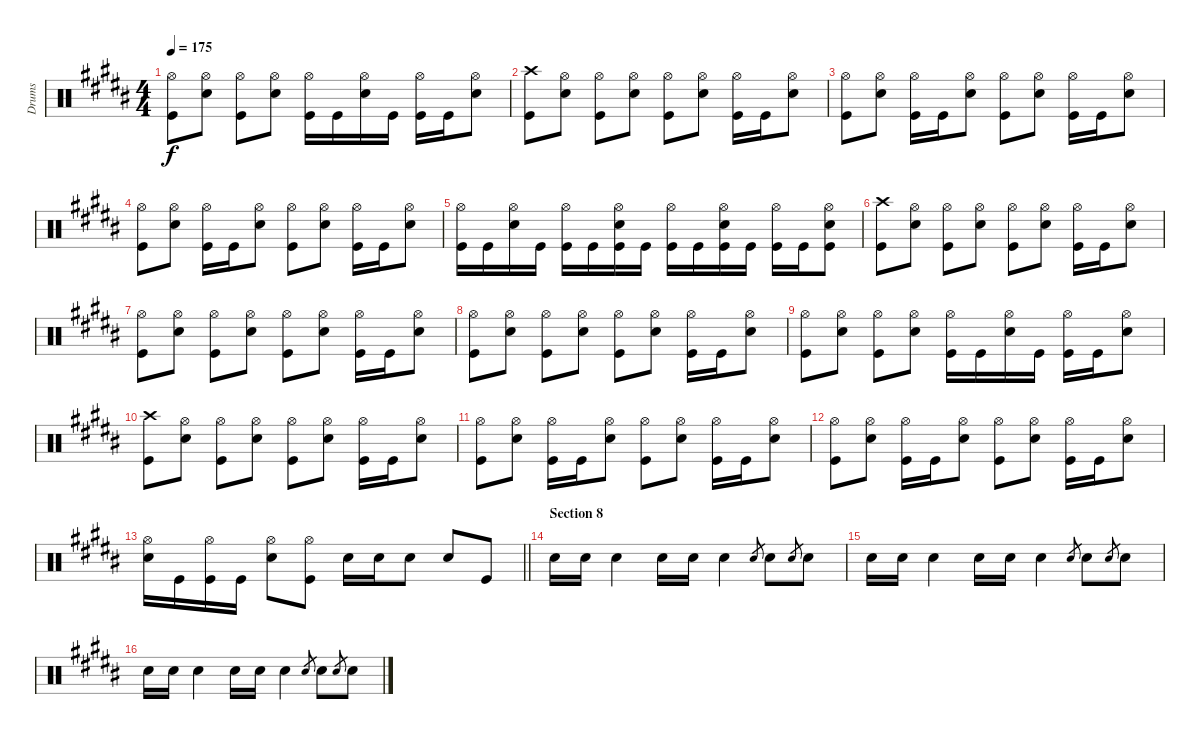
\track ("Drums" "Drums") {instrument percussion}
\staff {score}
\articulation defaults
\ts (4 4)
\tempo 175
\clef neutral
\ks b
("Hi-Hat (open)" "Kick (hit)").8{dy f} ("Hi-Hat (open)" "Snare (hit) 2").8 ("Hi-Hat (open)" "Kick (hit)").8 ("Hi-Hat (open)" "Snare (hit) 2").8 ("Hi-Hat (open)" "Kick (hit)").16 "Kick (hit)".16 ("Hi-Hat (open)" "Snare (hit) 2").16 "Kick (hit)".16 ("Hi-Hat (open)" "Kick (hit)").16 "Kick (hit)".16 ("Hi-Hat (open)" "Snare (hit) 2").8 |
("Crash high (hit)" "Kick (hit)").8 ("Hi-Hat (open)" "Snare (hit) 2").8 ("Hi-Hat (open)" "Kick (hit)").8 ("Hi-Hat (open)" "Snare (hit) 2").8 ("Hi-Hat (open)" "Kick (hit)").8 ("Hi-Hat (open)" "Snare (hit) 2").8 ("Hi-Hat (open)" "Kick (hit)").16 "Kick (hit)".16 ("Hi-Hat (open)" "Snare (hit) 2").8 |
("Hi-Hat (open)" "Kick (hit)").8 ("Hi-Hat (open)" "Snare (hit) 2").8 ("Hi-Hat (open)" "Kick (hit)").16 "Kick (hit)".16 ("Hi-Hat (open)" "Snare (hit) 2").8 ("Hi-Hat (open)" "Kick (hit)").8 ("Hi-Hat (open)" "Snare (hit) 2").8 ("Hi-Hat (open)" "Kick (hit)").16 "Kick (hit)".16 ("Hi-Hat (open)" "Snare (hit) 2").8 |
("Hi-Hat (open)" "Kick (hit)").8 ("Hi-Hat (open)" "Snare (hit) 2").8 ("Hi-Hat (open)" "Kick (hit)").16 "Kick (hit)".16 ("Hi-Hat (open)" "Snare (hit) 2").8 ("Hi-Hat (open)" "Kick (hit)").8 ("Hi-Hat (open)" "Snare (hit) 2").8 ("Hi-Hat (open)" "Kick (hit)").16 "Kick (hit)".16 ("Hi-Hat (open)" "Snare (hit) 2").8 |
("Hi-Hat (open)" "Kick (hit)").16 "Kick (hit)".16 ("Hi-Hat (open)" "Snare (hit) 2").16 "Kick (hit)".16 ("Hi-Hat (open)" "Kick (hit)").16 "Kick (hit)".16 ("Hi-Hat (open)" "Kick (hit)" "Snare (hit) 2").16 "Kick (hit)".16 ("Hi-Hat (open)" "Kick (hit)").16 "Kick (hit)".16 ("Hi-Hat (open)" "Kick (hit)" "Snare (hit) 2").16 "Kick (hit)".16 ("Hi-Hat (open)" "Kick (hit)").16 "Kick (hit)".16 ("Hi-Hat (open)" "Kick (hit)" "Snare (hit) 2").8 |
("Crash high (hit)" "Kick (hit)").8 ("Hi-Hat (open)" "Snare (hit) 2").8 ("Hi-Hat (open)" "Kick (hit)").8 ("Hi-Hat (open)" "Snare (hit) 2").8 ("Hi-Hat (open)" "Kick (hit)").8 ("Hi-Hat (open)" "Snare (hit) 2").8 ("Hi-Hat (open)" "Kick (hit)").16 "Kick (hit)".16 ("Hi-Hat (open)" "Snare (hit) 2").8 |
("Hi-Hat (open)" "Kick (hit)").8 ("Hi-Hat (open)" "Snare (hit) 2").8 ("Hi-Hat (open)" "Kick (hit)").8 ("Hi-Hat (open)" "Snare (hit) 2").8 ("Hi-Hat (open)" "Kick (hit)").8 ("Hi-Hat (open)" "Snare (hit) 2").8 ("Hi-Hat (open)" "Kick (hit)").16 "Kick (hit)".16 ("Hi-Hat (open)" "Snare (hit) 2").8 |
("Hi-Hat (open)" "Kick (hit)").8 ("Hi-Hat (open)" "Snare (hit) 2").8 ("Hi-Hat (open)" "Kick (hit)").8 ("Hi-Hat (open)" "Snare (hit) 2").8 ("Hi-Hat (open)" "Kick (hit)").8 ("Hi-Hat (open)" "Snare (hit) 2").8 ("Hi-Hat (open)" "Kick (hit)").16 "Kick (hit)".16 ("Hi-Hat (open)" "Snare (hit) 2").8 |
("Hi-Hat (open)" "Kick (hit)").8 ("Hi-Hat (open)" "Snare (hit) 2").8 ("Hi-Hat (open)" "Kick (hit)").8 ("Hi-Hat (open)" "Snare (hit) 2").8 ("Hi-Hat (open)" "Kick (hit)").16 "Kick (hit)".16 ("Hi-Hat (open)" "Snare (hit) 2").16 "Kick (hit)".16 ("Hi-Hat (open)" "Kick (hit)").16 "Kick (hit)".16 ("Hi-Hat (open)" "Snare (hit) 2").8 |
("Crash high (hit)" "Kick (hit)").8 ("Hi-Hat (open)" "Snare (hit) 2").8 ("Hi-Hat (open)" "Kick (hit)").8 ("Hi-Hat (open)" "Snare (hit) 2").8 ("Hi-Hat (open)" "Kick (hit)").8 ("Hi-Hat (open)" "Snare (hit) 2").8 ("Hi-Hat (open)" "Kick (hit)").16 "Kick (hit)".16 ("Hi-Hat (open)" "Snare (hit) 2").8 |
("Hi-Hat (open)" "Kick (hit)").8 ("Hi-Hat (open)" "Snare (hit) 2").8 ("Hi-Hat (open)" "Kick (hit)").16 "Kick (hit)".16 ("Hi-Hat (open)" "Snare (hit) 2").8 ("Hi-Hat (open)" "Kick (hit)").8 ("Hi-Hat (open)" "Snare (hit) 2").8 ("Hi-Hat (open)" "Kick (hit)").16 "Kick (hit)".16 ("Hi-Hat (open)" "Snare (hit) 2").8 |
("Hi-Hat (open)" "Kick (hit)").8 ("Hi-Hat (open)" "Snare (hit) 2").8 ("Hi-Hat (open)" "Kick (hit)").16 "Kick (hit)".16 ("Hi-Hat (open)" "Snare (hit) 2").8 ("Hi-Hat (open)" "Kick (hit)").8 ("Hi-Hat (open)" "Snare (hit) 2").8 ("Hi-Hat (open)" "Kick (hit)").16 "Kick (hit)".16 ("Hi-Hat (open)" "Snare (hit) 2").8 |
\barLineRight lightlight
("Hi-Hat (open)" "Snare (hit) 2").16 "Kick (hit)".16 ("Hi-Hat (open)" "Kick (hit)").16 "Kick (hit)".16 ("Hi-Hat (open)" "Snare (hit) 2").8 ("Hi-Hat (open)" "Kick (hit)").8 "Snare (hit) 2".16 "Snare (hit) 2".16 "Snare (hit) 2".8 "Snare (hit) 2".8 "Kick (hit)".8 |
\section ("" "Section 8")
"Snare (hit) 2".16 "Snare (hit) 2".16 "Snare (hit) 2".4 "Snare (hit) 2".16 "Snare (hit) 2".16 "Snare (hit) 2".4 "Snare (hit) 2".8{gr} "Snare (hit) 2".8 "Snare (hit) 2".8{gr} "Snare (hit) 2".8 |
"Snare (hit) 2".16 "Snare (hit) 2".16 "Snare (hit) 2".4 "Snare (hit) 2".16 "Snare (hit) 2".16 "Snare (hit) 2".4 "Snare (hit) 2".8{gr} "Snare (hit) 2".8 "Snare (hit) 2".8{gr} "Snare (hit) 2".8 |
"Snare (hit) 2".16 "Snare (hit) 2".16 "Snare (hit) 2".4 "Snare (hit) 2".16 "Snare (hit) 2".16 "Snare (hit) 2".4 "Snare (hit) 2".8{gr} "Snare (hit) 2".8 "Snare (hit) 2".8{gr} "Snare (hit) 2".8
